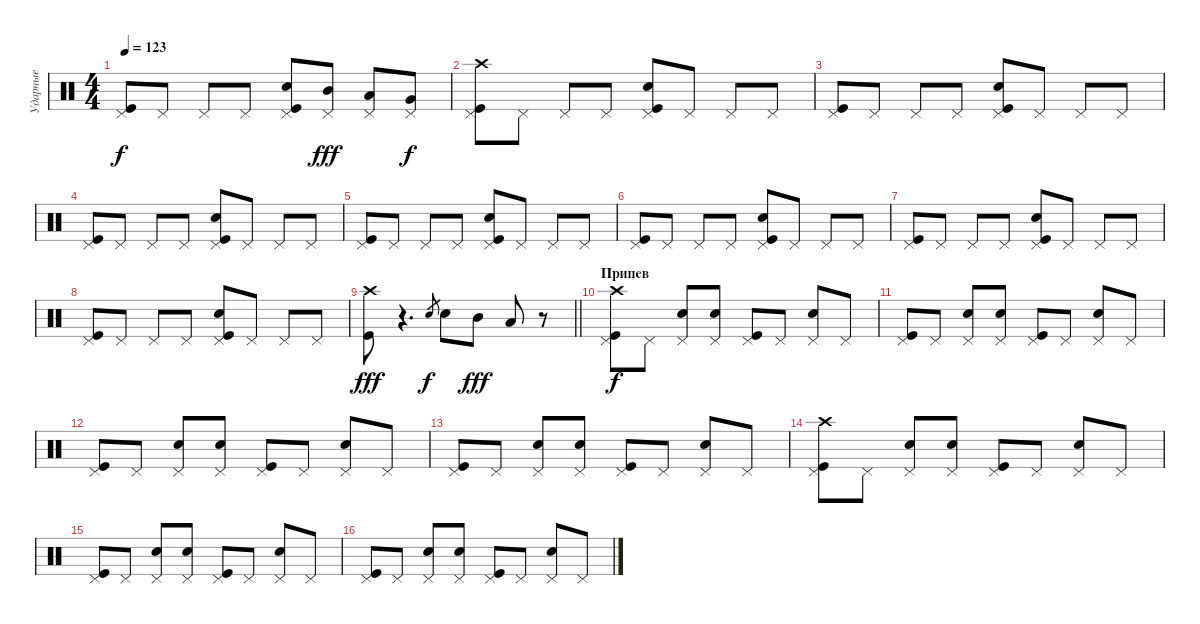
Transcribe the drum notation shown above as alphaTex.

\track ("Ударные" "Ударные") {instrument percussion}
\staff {score}
\articulation defaults
\ts (4 4)
\tempo 123
\clef neutral
\ks c
("Kick (hit)" "Pedal Hi-Hat (hit)").8{dy f} "Pedal Hi-Hat (hit)".8 "Pedal Hi-Hat (hit)".8 "Pedal Hi-Hat (hit)".8 ("Kick (hit)" "Pedal Hi-Hat (hit)" "Snare (hit) 2").8 ("Pedal Hi-Hat (hit)" "Mid Tom (hit)").8{dy fff} ("Pedal Hi-Hat (hit)" "Low Tom (hit)").8 ("Pedal Hi-Hat (hit)" "Very Low Tom (hit)").8{dy f} |
("Kick (hit)" "Pedal Hi-Hat (hit)" "Crash high (hit)").8 "Pedal Hi-Hat (hit)".8 "Pedal Hi-Hat (hit)".8 "Pedal Hi-Hat (hit)".8 ("Kick (hit)" "Pedal Hi-Hat (hit)" "Snare (hit) 2").8 "Pedal Hi-Hat (hit)".8 "Pedal Hi-Hat (hit)".8 "Pedal Hi-Hat (hit)".8 |
("Kick (hit)" "Pedal Hi-Hat (hit)").8 "Pedal Hi-Hat (hit)".8 "Pedal Hi-Hat (hit)".8 "Pedal Hi-Hat (hit)".8 ("Kick (hit)" "Pedal Hi-Hat (hit)" "Snare (hit) 2").8 "Pedal Hi-Hat (hit)".8 "Pedal Hi-Hat (hit)".8 "Pedal Hi-Hat (hit)".8 |
("Kick (hit)" "Pedal Hi-Hat (hit)").8 "Pedal Hi-Hat (hit)".8 "Pedal Hi-Hat (hit)".8 "Pedal Hi-Hat (hit)".8 ("Kick (hit)" "Pedal Hi-Hat (hit)" "Snare (hit) 2").8 "Pedal Hi-Hat (hit)".8 "Pedal Hi-Hat (hit)".8 "Pedal Hi-Hat (hit)".8 |
("Kick (hit)" "Pedal Hi-Hat (hit)").8 "Pedal Hi-Hat (hit)".8 "Pedal Hi-Hat (hit)".8 "Pedal Hi-Hat (hit)".8 ("Kick (hit)" "Pedal Hi-Hat (hit)" "Snare (hit) 2").8 "Pedal Hi-Hat (hit)".8 "Pedal Hi-Hat (hit)".8 "Pedal Hi-Hat (hit)".8 |
("Kick (hit)" "Pedal Hi-Hat (hit)").8 "Pedal Hi-Hat (hit)".8 "Pedal Hi-Hat (hit)".8 "Pedal Hi-Hat (hit)".8 ("Kick (hit)" "Pedal Hi-Hat (hit)" "Snare (hit) 2").8 "Pedal Hi-Hat (hit)".8 "Pedal Hi-Hat (hit)".8 "Pedal Hi-Hat (hit)".8 |
("Kick (hit)" "Pedal Hi-Hat (hit)").8 "Pedal Hi-Hat (hit)".8 "Pedal Hi-Hat (hit)".8 "Pedal Hi-Hat (hit)".8 ("Kick (hit)" "Pedal Hi-Hat (hit)" "Snare (hit) 2").8 "Pedal Hi-Hat (hit)".8 "Pedal Hi-Hat (hit)".8 "Pedal Hi-Hat (hit)".8 |
("Kick (hit)" "Pedal Hi-Hat (hit)").8 "Pedal Hi-Hat (hit)".8 "Pedal Hi-Hat (hit)".8 "Pedal Hi-Hat (hit)".8 ("Kick (hit)" "Pedal Hi-Hat (hit)" "Snare (hit) 2").8 "Pedal Hi-Hat (hit)".8 "Pedal Hi-Hat (hit)".8 "Pedal Hi-Hat (hit)".8 |
\barLineRight lightlight
("Kick (hit)" "Crash high (hit)").8{dy fff} r.4{d} "Snare (hit) 2".8{gr dy f} "Snare (hit) 2".8 "Mid Tom (hit)".8{dy fff} "Low Tom (hit)".8 r.8 |
\section ("" "Припев")
("Kick (hit)" "Pedal Hi-Hat (hit)" "Crash high (hit)").8{dy f} "Pedal Hi-Hat (hit)".8 ("Pedal Hi-Hat (hit)" "Snare (hit) 2").8 ("Pedal Hi-Hat (hit)" "Snare (hit) 2").8 ("Kick (hit)" "Pedal Hi-Hat (hit)").8 "Pedal Hi-Hat (hit)".8 ("Pedal Hi-Hat (hit)" "Snare (hit) 2").8 "Pedal Hi-Hat (hit)".8 |
("Kick (hit)" "Pedal Hi-Hat (hit)").8 "Pedal Hi-Hat (hit)".8 ("Pedal Hi-Hat (hit)" "Snare (hit) 2").8 ("Pedal Hi-Hat (hit)" "Snare (hit) 2").8 ("Kick (hit)" "Pedal Hi-Hat (hit)").8 "Pedal Hi-Hat (hit)".8 ("Pedal Hi-Hat (hit)" "Snare (hit) 2").8 "Pedal Hi-Hat (hit)".8 |
("Kick (hit)" "Pedal Hi-Hat (hit)").8 "Pedal Hi-Hat (hit)".8 ("Pedal Hi-Hat (hit)" "Snare (hit) 2").8 ("Pedal Hi-Hat (hit)" "Snare (hit) 2").8 ("Kick (hit)" "Pedal Hi-Hat (hit)").8 "Pedal Hi-Hat (hit)".8 ("Pedal Hi-Hat (hit)" "Snare (hit) 2").8 "Pedal Hi-Hat (hit)".8 |
("Kick (hit)" "Pedal Hi-Hat (hit)").8 "Pedal Hi-Hat (hit)".8 ("Pedal Hi-Hat (hit)" "Snare (hit) 2").8 ("Pedal Hi-Hat (hit)" "Snare (hit) 2").8 ("Kick (hit)" "Pedal Hi-Hat (hit)").8 "Pedal Hi-Hat (hit)".8 ("Pedal Hi-Hat (hit)" "Snare (hit) 2").8 "Pedal Hi-Hat (hit)".8 |
("Kick (hit)" "Pedal Hi-Hat (hit)" "Crash high (hit)").8 "Pedal Hi-Hat (hit)".8 ("Pedal Hi-Hat (hit)" "Snare (hit) 2").8 ("Pedal Hi-Hat (hit)" "Snare (hit) 2").8 ("Kick (hit)" "Pedal Hi-Hat (hit)").8 "Pedal Hi-Hat (hit)".8 ("Pedal Hi-Hat (hit)" "Snare (hit) 2").8 "Pedal Hi-Hat (hit)".8 |
("Kick (hit)" "Pedal Hi-Hat (hit)").8 "Pedal Hi-Hat (hit)".8 ("Pedal Hi-Hat (hit)" "Snare (hit) 2").8 ("Pedal Hi-Hat (hit)" "Snare (hit) 2").8 ("Kick (hit)" "Pedal Hi-Hat (hit)").8 "Pedal Hi-Hat (hit)".8 ("Pedal Hi-Hat (hit)" "Snare (hit) 2").8 "Pedal Hi-Hat (hit)".8 |
("Kick (hit)" "Pedal Hi-Hat (hit)").8 "Pedal Hi-Hat (hit)".8 ("Pedal Hi-Hat (hit)" "Snare (hit) 2").8 ("Pedal Hi-Hat (hit)" "Snare (hit) 2").8 ("Kick (hit)" "Pedal Hi-Hat (hit)").8 "Pedal Hi-Hat (hit)".8 ("Pedal Hi-Hat (hit)" "Snare (hit) 2").8 "Pedal Hi-Hat (hit)".8
